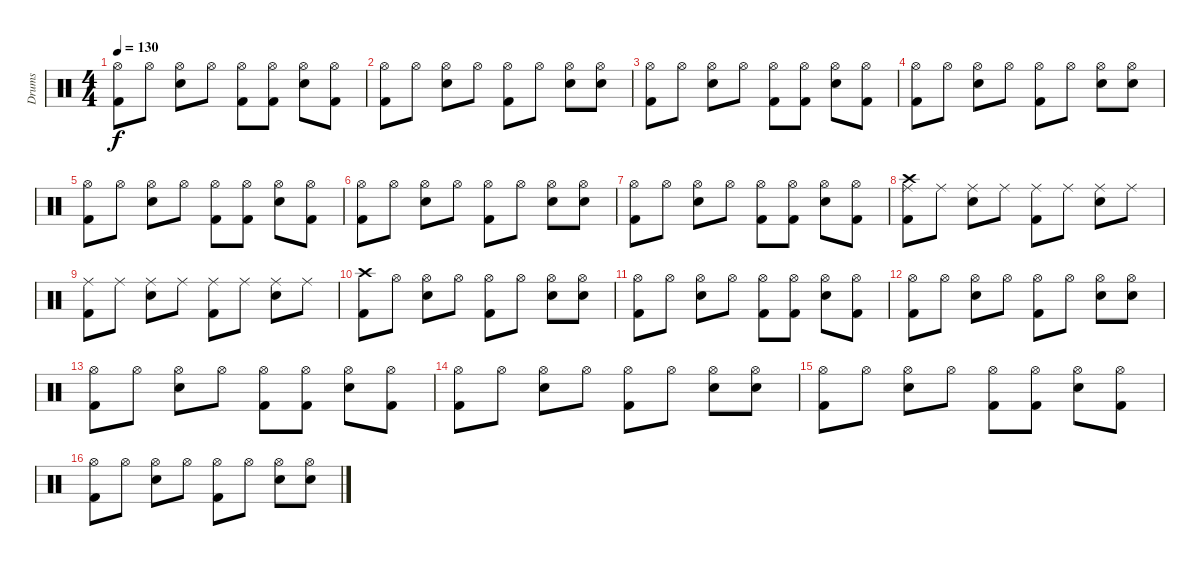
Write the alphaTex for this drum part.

\track ("Drums" "Drums") {instrument percussion}
\staff {score}
\articulation defaults
\ts (4 4)
\tempo 130
\clef neutral
\ks c
("Hi-Hat (open)" "Kick (hit) 2").8{dy f} "Hi-Hat (open)".8 ("Hi-Hat (open)" "Electric Snare (hit)").8 "Hi-Hat (open)".8 ("Hi-Hat (open)" "Kick (hit) 2").8 ("Hi-Hat (open)" "Kick (hit) 2").8 ("Hi-Hat (open)" "Electric Snare (hit)").8 ("Hi-Hat (open)" "Kick (hit) 2").8 |
("Hi-Hat (open)" "Kick (hit) 2").8 "Hi-Hat (open)".8 ("Hi-Hat (open)" "Electric Snare (hit)").8 "Hi-Hat (open)".8 ("Hi-Hat (open)" "Kick (hit) 2").8 "Hi-Hat (open)".8 ("Hi-Hat (open)" "Electric Snare (hit)").8 ("Hi-Hat (open)" "Electric Snare (hit)").8 |
("Hi-Hat (open)" "Kick (hit) 2").8 "Hi-Hat (open)".8 ("Hi-Hat (open)" "Electric Snare (hit)").8 "Hi-Hat (open)".8 ("Hi-Hat (open)" "Kick (hit) 2").8 ("Hi-Hat (open)" "Kick (hit) 2").8 ("Hi-Hat (open)" "Electric Snare (hit)").8 ("Hi-Hat (open)" "Kick (hit) 2").8 |
("Hi-Hat (open)" "Kick (hit) 2").8 "Hi-Hat (open)".8 ("Hi-Hat (open)" "Electric Snare (hit)").8 "Hi-Hat (open)".8 ("Hi-Hat (open)" "Kick (hit) 2").8 "Hi-Hat (open)".8 ("Hi-Hat (open)" "Electric Snare (hit)").8 ("Hi-Hat (open)" "Electric Snare (hit)").8 |
("Hi-Hat (open)" "Kick (hit) 2").8 "Hi-Hat (open)".8 ("Hi-Hat (open)" "Electric Snare (hit)").8 "Hi-Hat (open)".8 ("Hi-Hat (open)" "Kick (hit) 2").8 ("Hi-Hat (open)" "Kick (hit) 2").8 ("Hi-Hat (open)" "Electric Snare (hit)").8 ("Hi-Hat (open)" "Kick (hit) 2").8 |
("Hi-Hat (open)" "Kick (hit) 2").8 "Hi-Hat (open)".8 ("Hi-Hat (open)" "Electric Snare (hit)").8 "Hi-Hat (open)".8 ("Hi-Hat (open)" "Kick (hit) 2").8 "Hi-Hat (open)".8 ("Hi-Hat (open)" "Electric Snare (hit)").8 ("Hi-Hat (open)" "Electric Snare (hit)").8 |
("Hi-Hat (open)" "Kick (hit) 2").8 "Hi-Hat (open)".8 ("Hi-Hat (open)" "Electric Snare (hit)").8 "Hi-Hat (open)".8 ("Hi-Hat (open)" "Kick (hit) 2").8 ("Hi-Hat (open)" "Kick (hit) 2").8 ("Hi-Hat (open)" "Electric Snare (hit)").8 ("Hi-Hat (open)" "Kick (hit) 2").8 |
("Crash high (hit)" "Ride (middle)" "Kick (hit) 2").8 "Ride (middle)".8 ("Ride (middle)" "Electric Snare (hit)").8 "Ride (middle)".8 ("Ride (middle)" "Kick (hit) 2").8 "Ride (middle)".8 ("Ride (middle)" "Electric Snare (hit)").8 "Ride (middle)".8 |
("Ride (middle)" "Kick (hit) 2").8 "Ride (middle)".8 ("Ride (middle)" "Electric Snare (hit)").8 "Ride (middle)".8 ("Ride (middle)" "Kick (hit) 2").8 "Ride (middle)".8 ("Ride (middle)" "Electric Snare (hit)").8 "Ride (middle)".8 |
("Crash high (hit)" "Kick (hit) 2").8 "Hi-Hat (open)".8 ("Hi-Hat (open)" "Electric Snare (hit)").8 "Hi-Hat (open)".8 ("Hi-Hat (open)" "Kick (hit) 2").8 "Hi-Hat (open)".8 ("Hi-Hat (open)" "Electric Snare (hit)").8 ("Hi-Hat (open)" "Electric Snare (hit)").8 |
("Hi-Hat (open)" "Kick (hit) 2").8 "Hi-Hat (open)".8 ("Hi-Hat (open)" "Electric Snare (hit)").8 "Hi-Hat (open)".8 ("Hi-Hat (open)" "Kick (hit) 2").8 ("Hi-Hat (open)" "Kick (hit) 2").8 ("Hi-Hat (open)" "Electric Snare (hit)").8 ("Hi-Hat (open)" "Kick (hit) 2").8 |
("Hi-Hat (open)" "Kick (hit) 2").8 "Hi-Hat (open)".8 ("Hi-Hat (open)" "Electric Snare (hit)").8 "Hi-Hat (open)".8 ("Hi-Hat (open)" "Kick (hit) 2").8 "Hi-Hat (open)".8 ("Hi-Hat (open)" "Electric Snare (hit)").8 ("Hi-Hat (open)" "Electric Snare (hit)").8 |
("Hi-Hat (open)" "Kick (hit) 2").8 "Hi-Hat (open)".8 ("Hi-Hat (open)" "Electric Snare (hit)").8 "Hi-Hat (open)".8 ("Hi-Hat (open)" "Kick (hit) 2").8 ("Hi-Hat (open)" "Kick (hit) 2").8 ("Hi-Hat (open)" "Electric Snare (hit)").8 ("Hi-Hat (open)" "Kick (hit) 2").8 |
("Hi-Hat (open)" "Kick (hit) 2").8 "Hi-Hat (open)".8 ("Hi-Hat (open)" "Electric Snare (hit)").8 "Hi-Hat (open)".8 ("Hi-Hat (open)" "Kick (hit) 2").8 "Hi-Hat (open)".8 ("Hi-Hat (open)" "Electric Snare (hit)").8 ("Hi-Hat (open)" "Electric Snare (hit)").8 |
("Hi-Hat (open)" "Kick (hit) 2").8 "Hi-Hat (open)".8 ("Hi-Hat (open)" "Electric Snare (hit)").8 "Hi-Hat (open)".8 ("Hi-Hat (open)" "Kick (hit) 2").8 ("Hi-Hat (open)" "Kick (hit) 2").8 ("Hi-Hat (open)" "Electric Snare (hit)").8 ("Hi-Hat (open)" "Kick (hit) 2").8 |
("Hi-Hat (open)" "Kick (hit) 2").8 "Hi-Hat (open)".8 ("Hi-Hat (open)" "Electric Snare (hit)").8 "Hi-Hat (open)".8 ("Hi-Hat (open)" "Kick (hit) 2").8 "Hi-Hat (open)".8 ("Hi-Hat (open)" "Electric Snare (hit)").8 ("Hi-Hat (open)" "Electric Snare (hit)").8
